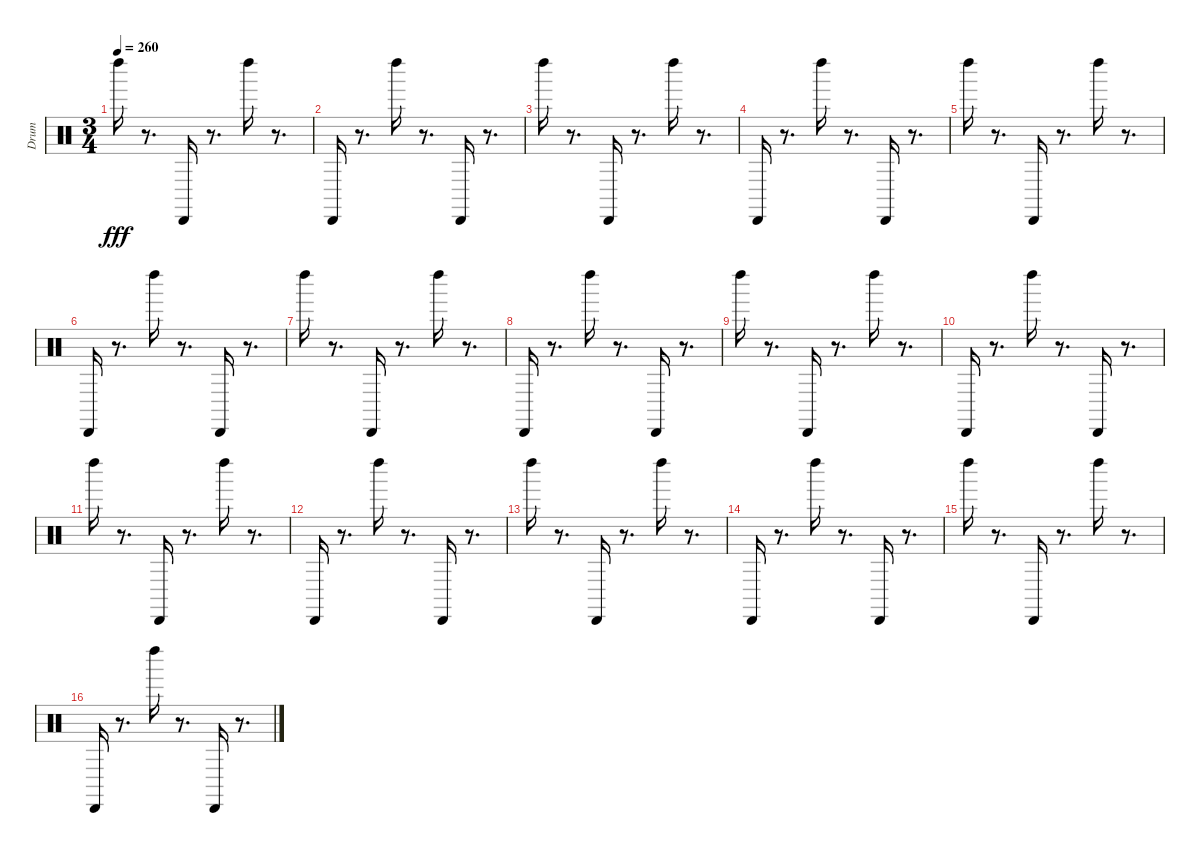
\track ("Drum" "Drum") {instrument percussion}
\staff {score}
\articulation defaults
\ts (3 4)
\tempo 260
\clef neutral
\ks c "Left Maraca (hit)".16{dy fff}
r.8{d} "Cabasa (hit)".16 r.8{d} "Left Maraca (hit)".16 r.8{d} |
"Cabasa (hit)".16 r.8{d} "Left Maraca (hit)".16 r.8{d} "Cabasa (hit)".16 r.8{d} |
"Left Maraca (hit)".16 r.8{d} "Cabasa (hit)".16 r.8{d} "Left Maraca (hit)".16 r.8{d} |
"Cabasa (hit)".16 r.8{d} "Left Maraca (hit)".16 r.8{d} "Cabasa (hit)".16 r.8{d} |
"Left Maraca (hit)".16 r.8{d} "Cabasa (hit)".16 r.8{d} "Left Maraca (hit)".16 r.8{d} |
"Cabasa (hit)".16 r.8{d} "Left Maraca (hit)".16 r.8{d} "Cabasa (hit)".16 r.8{d} |
"Left Maraca (hit)".16 r.8{d} "Cabasa (hit)".16 r.8{d} "Left Maraca (hit)".16 r.8{d} |
"Cabasa (hit)".16 r.8{d} "Left Maraca (hit)".16 r.8{d} "Cabasa (hit)".16 r.8{d} |
"Left Maraca (hit)".16 r.8{d} "Cabasa (hit)".16 r.8{d} "Left Maraca (hit)".16 r.8{d} |
"Cabasa (hit)".16 r.8{d} "Left Maraca (hit)".16 r.8{d} "Cabasa (hit)".16 r.8{d} |
"Left Maraca (hit)".16 r.8{d} "Cabasa (hit)".16 r.8{d} "Left Maraca (hit)".16 r.8{d} |
"Cabasa (hit)".16 r.8{d} "Left Maraca (hit)".16 r.8{d} "Cabasa (hit)".16 r.8{d} |
"Left Maraca (hit)".16 r.8{d} "Cabasa (hit)".16 r.8{d} "Left Maraca (hit)".16 r.8{d} |
"Cabasa (hit)".16 r.8{d} "Left Maraca (hit)".16 r.8{d} "Cabasa (hit)".16 r.8{d} |
"Left Maraca (hit)".16 r.8{d} "Cabasa (hit)".16 r.8{d} "Left Maraca (hit)".16 r.8{d} |
"Cabasa (hit)".16 r.8{d} "Left Maraca (hit)".16 r.8{d} "Cabasa (hit)".16 r.8{d}
